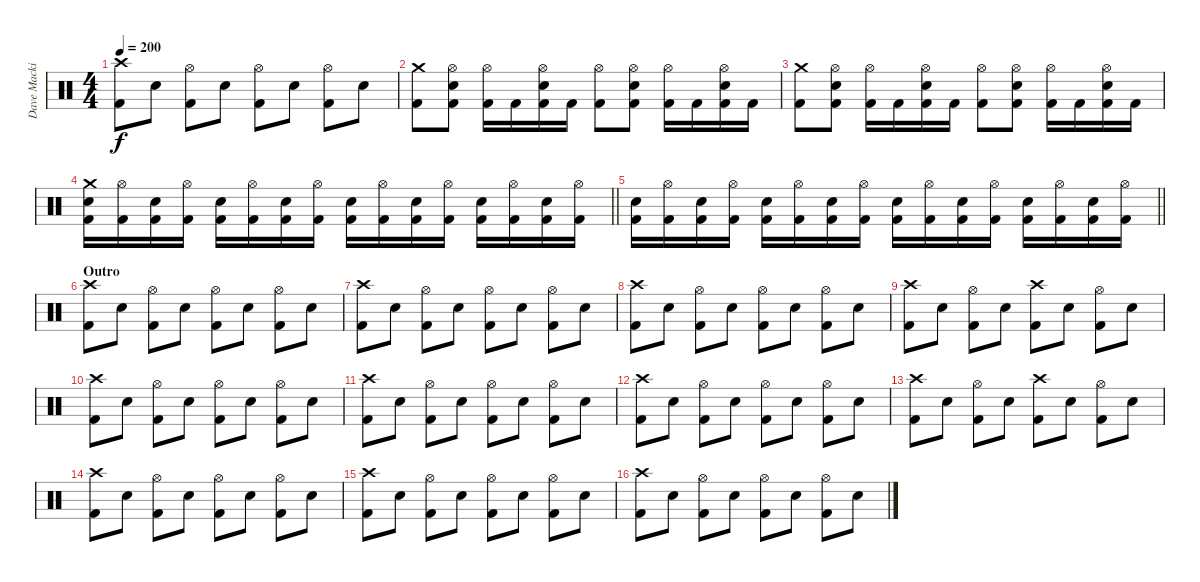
\track ("Dave Mackintosh | Drums" "Dave Macki") {instrument percussion}
\staff {score}
\articulation defaults
\ts (4 4)
\tempo 200
\clef neutral
\ks c
("Crash high (hit)" "Kick (hit) 2").8{dy f} "Snare (hit) 2".8 ("Hi-Hat (open)" "Kick (hit) 2").8 "Snare (hit) 2".8 ("Hi-Hat (open)" "Kick (hit) 2").8 "Snare (hit) 2".8 ("Hi-Hat (open)" "Kick (hit) 2").8 "Snare (hit) 2".8 |
("Crash medium (hit)" "Kick (hit) 2").8 ("Hi-Hat (open)" "Snare (hit) 2" "Kick (hit) 2").8 ("Hi-Hat (open)" "Kick (hit) 2").16 "Kick (hit) 2".16 ("Hi-Hat (open)" "Snare (hit) 2" "Kick (hit) 2").16 "Kick (hit) 2".16 ("Hi-Hat (open)" "Kick (hit) 2").8 ("Hi-Hat (open)" "Snare (hit) 2" "Kick (hit) 2").8 ("Hi-Hat (open)" "Kick (hit) 2").16 "Kick (hit) 2".16 ("Hi-Hat (open)" "Snare (hit) 2" "Kick (hit) 2").16 "Kick (hit) 2".16 |
("Crash medium (hit)" "Kick (hit) 2").8 ("Hi-Hat (open)" "Snare (hit) 2" "Kick (hit) 2").8 ("Hi-Hat (open)" "Kick (hit) 2").16 "Kick (hit) 2".16 ("Hi-Hat (open)" "Snare (hit) 2" "Kick (hit) 2").16 "Kick (hit) 2".16 ("Hi-Hat (open)" "Kick (hit) 2").8 ("Hi-Hat (open)" "Snare (hit) 2" "Kick (hit) 2").8 ("Hi-Hat (open)" "Kick (hit) 2").16 "Kick (hit) 2".16 ("Hi-Hat (open)" "Snare (hit) 2" "Kick (hit) 2").16 "Kick (hit) 2".16 |
\barLineRight lightlight
("Crash medium (hit)" "Snare (hit) 2" "Kick (hit) 2").16 ("Hi-Hat (open)" "Kick (hit) 2").16 ("Snare (hit) 2" "Kick (hit) 2").16 ("Hi-Hat (open)" "Kick (hit) 2").16 ("Snare (hit) 2" "Kick (hit) 2").16 ("Hi-Hat (open)" "Kick (hit) 2").16 ("Snare (hit) 2" "Kick (hit) 2").16 ("Hi-Hat (open)" "Kick (hit) 2").16 ("Snare (hit) 2" "Kick (hit) 2").16 ("Hi-Hat (open)" "Kick (hit) 2").16 ("Snare (hit) 2" "Kick (hit) 2").16 ("Hi-Hat (open)" "Kick (hit) 2").16 ("Snare (hit) 2" "Kick (hit) 2").16 ("Hi-Hat (open)" "Kick (hit) 2").16 ("Snare (hit) 2" "Kick (hit) 2").16 ("Hi-Hat (open)" "Kick (hit) 2").16 |
\barLineRight lightlight
("Snare (hit) 2" "Kick (hit) 2").16 ("Hi-Hat (open)" "Kick (hit) 2").16 ("Snare (hit) 2" "Kick (hit) 2").16 ("Hi-Hat (open)" "Kick (hit) 2").16 ("Snare (hit) 2" "Kick (hit) 2").16 ("Hi-Hat (open)" "Kick (hit) 2").16 ("Snare (hit) 2" "Kick (hit) 2").16 ("Hi-Hat (open)" "Kick (hit) 2").16 ("Snare (hit) 2" "Kick (hit) 2").16 ("Hi-Hat (open)" "Kick (hit) 2").16 ("Snare (hit) 2" "Kick (hit) 2").16 ("Hi-Hat (open)" "Kick (hit) 2").16 ("Snare (hit) 2" "Kick (hit) 2").16 ("Hi-Hat (open)" "Kick (hit) 2").16 ("Snare (hit) 2" "Kick (hit) 2").16 ("Hi-Hat (open)" "Kick (hit) 2").16 |
\section ("" "Outro")
("Crash high (hit)" "Kick (hit) 2").8 "Snare (hit) 2".8 ("Hi-Hat (open)" "Kick (hit) 2").8 "Snare (hit) 2".8 ("Hi-Hat (open)" "Kick (hit) 2").8 "Snare (hit) 2".8 ("Hi-Hat (open)" "Kick (hit) 2").8 "Snare (hit) 2".8 |
("Crash high (hit)" "Kick (hit) 2").8 "Snare (hit) 2".8 ("Hi-Hat (open)" "Kick (hit) 2").8 "Snare (hit) 2".8 ("Hi-Hat (open)" "Kick (hit) 2").8 "Snare (hit) 2".8 ("Hi-Hat (open)" "Kick (hit) 2").8 "Snare (hit) 2".8 |
("Crash high (hit)" "Kick (hit) 2").8 "Snare (hit) 2".8 ("Hi-Hat (open)" "Kick (hit) 2").8 "Snare (hit) 2".8 ("Hi-Hat (open)" "Kick (hit) 2").8 "Snare (hit) 2".8 ("Hi-Hat (open)" "Kick (hit) 2").8 "Snare (hit) 2".8 |
("Crash high (hit)" "Kick (hit) 2").8 "Snare (hit) 2".8 ("Hi-Hat (open)" "Kick (hit) 2").8 "Snare (hit) 2".8 ("Crash high (hit)" "Kick (hit) 2").8 "Snare (hit) 2".8 ("Hi-Hat (open)" "Kick (hit) 2").8 "Snare (hit) 2".8 |
("Crash high (hit)" "Kick (hit) 2").8 "Snare (hit) 2".8 ("Hi-Hat (open)" "Kick (hit) 2").8 "Snare (hit) 2".8 ("Hi-Hat (open)" "Kick (hit) 2").8 "Snare (hit) 2".8 ("Hi-Hat (open)" "Kick (hit) 2").8 "Snare (hit) 2".8 |
("Crash high (hit)" "Kick (hit) 2").8 "Snare (hit) 2".8 ("Hi-Hat (open)" "Kick (hit) 2").8 "Snare (hit) 2".8 ("Hi-Hat (open)" "Kick (hit) 2").8 "Snare (hit) 2".8 ("Hi-Hat (open)" "Kick (hit) 2").8 "Snare (hit) 2".8 |
("Crash high (hit)" "Kick (hit) 2").8 "Snare (hit) 2".8 ("Hi-Hat (open)" "Kick (hit) 2").8 "Snare (hit) 2".8 ("Hi-Hat (open)" "Kick (hit) 2").8 "Snare (hit) 2".8 ("Hi-Hat (open)" "Kick (hit) 2").8 "Snare (hit) 2".8 |
("Crash high (hit)" "Kick (hit) 2").8 "Snare (hit) 2".8 ("Hi-Hat (open)" "Kick (hit) 2").8 "Snare (hit) 2".8 ("Crash high (hit)" "Kick (hit) 2").8 "Snare (hit) 2".8 ("Hi-Hat (open)" "Kick (hit) 2").8 "Snare (hit) 2".8 |
("Crash high (hit)" "Kick (hit) 2").8 "Snare (hit) 2".8 ("Hi-Hat (open)" "Kick (hit) 2").8 "Snare (hit) 2".8 ("Hi-Hat (open)" "Kick (hit) 2").8 "Snare (hit) 2".8 ("Hi-Hat (open)" "Kick (hit) 2").8 "Snare (hit) 2".8 |
("Crash high (hit)" "Kick (hit) 2").8 "Snare (hit) 2".8 ("Hi-Hat (open)" "Kick (hit) 2").8 "Snare (hit) 2".8 ("Hi-Hat (open)" "Kick (hit) 2").8 "Snare (hit) 2".8 ("Hi-Hat (open)" "Kick (hit) 2").8 "Snare (hit) 2".8 |
("Crash high (hit)" "Kick (hit) 2").8 "Snare (hit) 2".8 ("Hi-Hat (open)" "Kick (hit) 2").8 "Snare (hit) 2".8 ("Hi-Hat (open)" "Kick (hit) 2").8 "Snare (hit) 2".8 ("Hi-Hat (open)" "Kick (hit) 2").8 "Snare (hit) 2".8
